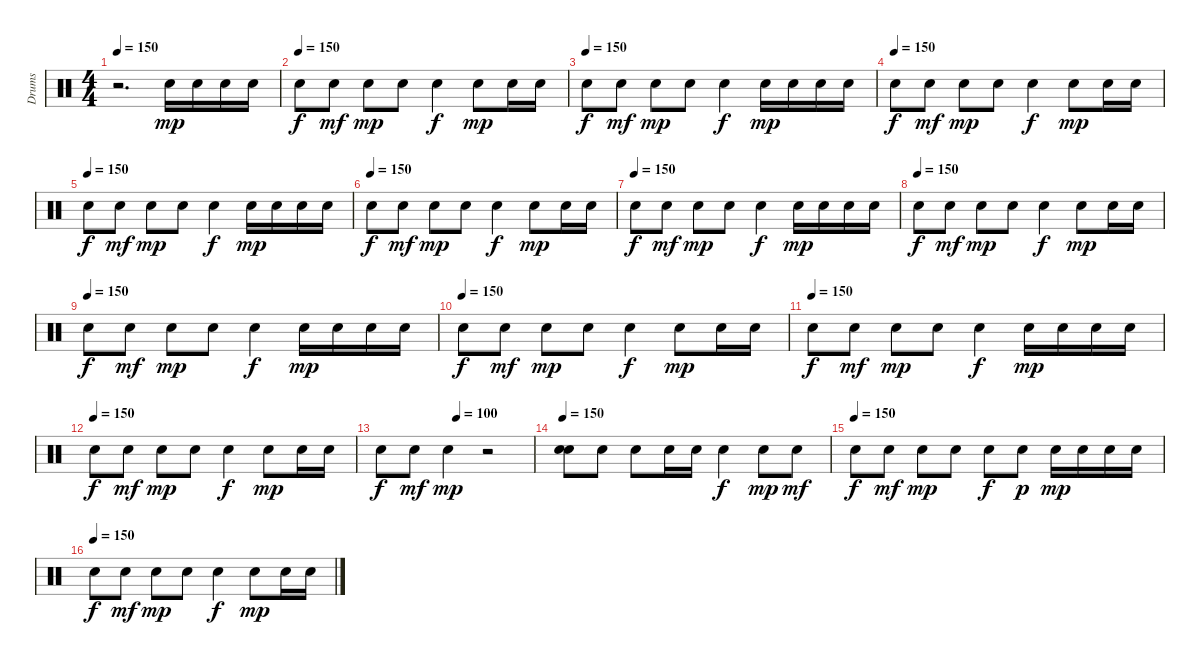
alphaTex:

\track ("Drums" "Drums") {instrument percussion}
\staff {score}
\articulation defaults
\ts (4 4)
\tempo 150
\clef neutral
\ks c
r.2{d dy fff volume 11} "Electric Snare (hit)".16{dy mp} "Electric Snare (hit)".16 "Electric Snare (hit)".16 "Electric Snare (hit)".16 |
\tempo (150)
"Electric Snare (hit)".8{dy f} "Electric Snare (hit)".8{dy mf} "Electric Snare (hit)".8{dy mp} "Electric Snare (hit)".8 "Electric Snare (hit)".4{dy f} "Electric Snare (hit)".8{dy mp} "Electric Snare (hit)".16 "Electric Snare (hit)".16 |
\tempo (150)
"Electric Snare (hit)".8{dy f} "Electric Snare (hit)".8{dy mf} "Electric Snare (hit)".8{dy mp} "Electric Snare (hit)".8 "Electric Snare (hit)".4{dy f} "Electric Snare (hit)".16{dy mp} "Electric Snare (hit)".16 "Electric Snare (hit)".16 "Electric Snare (hit)".16 |
\tempo (150)
"Electric Snare (hit)".8{dy f} "Electric Snare (hit)".8{dy mf} "Electric Snare (hit)".8{dy mp} "Electric Snare (hit)".8 "Electric Snare (hit)".4{dy f} "Electric Snare (hit)".8{dy mp} "Electric Snare (hit)".16 "Electric Snare (hit)".16 |
\tempo (150)
"Electric Snare (hit)".8{dy f} "Electric Snare (hit)".8{dy mf} "Electric Snare (hit)".8{dy mp} "Electric Snare (hit)".8 "Electric Snare (hit)".4{dy f} "Electric Snare (hit)".16{dy mp} "Electric Snare (hit)".16 "Electric Snare (hit)".16 "Electric Snare (hit)".16 |
\tempo (150)
"Electric Snare (hit)".8{dy f} "Electric Snare (hit)".8{dy mf} "Electric Snare (hit)".8{dy mp} "Electric Snare (hit)".8 "Electric Snare (hit)".4{dy f} "Electric Snare (hit)".8{dy mp} "Electric Snare (hit)".16 "Electric Snare (hit)".16 |
\tempo (150)
"Electric Snare (hit)".8{dy f} "Electric Snare (hit)".8{dy mf} "Electric Snare (hit)".8{dy mp} "Electric Snare (hit)".8 "Electric Snare (hit)".4{dy f} "Electric Snare (hit)".16{dy mp} "Electric Snare (hit)".16 "Electric Snare (hit)".16 "Electric Snare (hit)".16 |
\tempo (150)
"Electric Snare (hit)".8{dy f} "Electric Snare (hit)".8{dy mf} "Electric Snare (hit)".8{dy mp} "Electric Snare (hit)".8 "Electric Snare (hit)".4{dy f} "Electric Snare (hit)".8{dy mp} "Electric Snare (hit)".16 "Electric Snare (hit)".16 |
\tempo (150)
"Electric Snare (hit)".8{dy f} "Electric Snare (hit)".8{dy mf} "Electric Snare (hit)".8{dy mp} "Electric Snare (hit)".8 "Electric Snare (hit)".4{dy f} "Electric Snare (hit)".16{dy mp} "Electric Snare (hit)".16 "Electric Snare (hit)".16 "Electric Snare (hit)".16 |
\tempo (150)
"Electric Snare (hit)".8{dy f} "Electric Snare (hit)".8{dy mf} "Electric Snare (hit)".8{dy mp} "Electric Snare (hit)".8 "Electric Snare (hit)".4{dy f} "Electric Snare (hit)".8{dy mp} "Electric Snare (hit)".16 "Electric Snare (hit)".16 |
\tempo (150)
"Electric Snare (hit)".8{dy f} "Electric Snare (hit)".8{dy mf} "Electric Snare (hit)".8{dy mp} "Electric Snare (hit)".8 "Electric Snare (hit)".4{dy f} "Electric Snare (hit)".16{dy mp} "Electric Snare (hit)".16 "Electric Snare (hit)".16 "Electric Snare (hit)".16 |
\tempo (150)
"Electric Snare (hit)".8{dy f} "Electric Snare (hit)".8{dy mf} "Electric Snare (hit)".8{dy mp} "Electric Snare (hit)".8 "Electric Snare (hit)".4{dy f} "Electric Snare (hit)".8{dy mp} "Electric Snare (hit)".16 "Electric Snare (hit)".16 |
\tempo (100 0.5)
"Electric Snare (hit)".8{dy f} "Electric Snare (hit)".8{dy mf} "Electric Snare (hit)".4{dy mp} r.2 |
\tempo 150
("Electric Snare (hit)" "Electric Snare (hit)").8{volume 11} "Electric Snare (hit)".8 "Electric Snare (hit)".8 "Electric Snare (hit)".16 "Electric Snare (hit)".16 "Electric Snare (hit)".4{dy f} "Electric Snare (hit)".8{dy mp} "Electric Snare (hit)".8{dy mf} |
\tempo (150)
"Electric Snare (hit)".8{dy f} "Electric Snare (hit)".8{dy mf} "Electric Snare (hit)".8{dy mp} "Electric Snare (hit)".8 "Electric Snare (hit)".8{dy f} "Electric Snare (hit)".8{dy p} "Electric Snare (hit)".16{dy mp} "Electric Snare (hit)".16 "Electric Snare (hit)".16 "Electric Snare (hit)".16 |
\tempo (150)
"Electric Snare (hit)".8{dy f} "Electric Snare (hit)".8{dy mf} "Electric Snare (hit)".8{dy mp} "Electric Snare (hit)".8 "Electric Snare (hit)".4{dy f} "Electric Snare (hit)".8{dy mp} "Electric Snare (hit)".16 "Electric Snare (hit)".16
